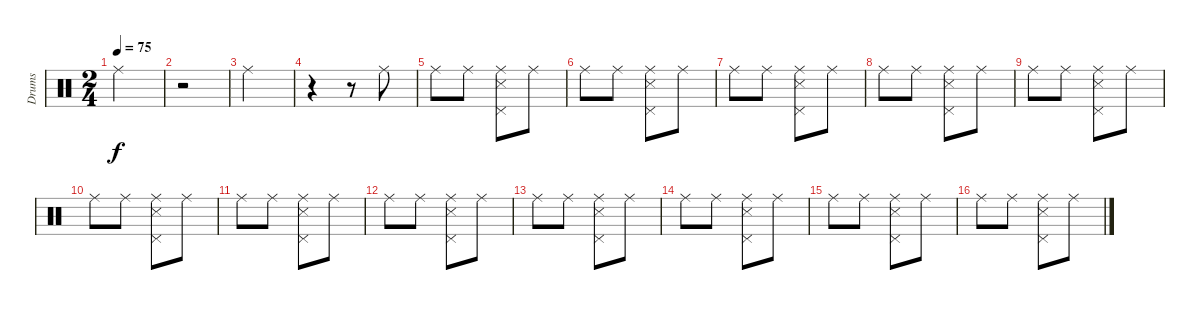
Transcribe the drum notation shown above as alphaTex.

\track ("Drums" "Drums") {instrument percussion}
\staff {score}
\articulation defaults
\ts (2 4)
\tempo 75
\clef neutral
\ks c "Ride (middle)".2{dy f}
|
r.2 |
"Ride (middle)".2 |
r.4 r.8 "Ride (middle)".8 |
"Ride (middle)".8 "Ride (middle)".8 ("Ride (middle)" "Pedal Hi-Hat (hit)" "Snare (side stick) 3").8 "Ride (middle)".8 |
"Ride (middle)".8 "Ride (middle)".8 ("Ride (middle)" "Pedal Hi-Hat (hit)" "Snare (side stick) 3").8 "Ride (middle)".8 |
"Ride (middle)".8 "Ride (middle)".8 ("Ride (middle)" "Pedal Hi-Hat (hit)" "Snare (side stick) 3").8 "Ride (middle)".8 |
"Ride (middle)".8 "Ride (middle)".8 ("Ride (middle)" "Pedal Hi-Hat (hit)" "Snare (side stick) 3").8 "Ride (middle)".8 |
"Ride (middle)".8 "Ride (middle)".8 ("Ride (middle)" "Pedal Hi-Hat (hit)" "Snare (side stick) 3").8 "Ride (middle)".8 |
"Ride (middle)".8 "Ride (middle)".8 ("Ride (middle)" "Pedal Hi-Hat (hit)" "Snare (side stick) 3").8 "Ride (middle)".8 |
"Ride (middle)".8 "Ride (middle)".8 ("Ride (middle)" "Pedal Hi-Hat (hit)" "Snare (side stick) 3").8 "Ride (middle)".8 |
"Ride (middle)".8 "Ride (middle)".8 ("Ride (middle)" "Pedal Hi-Hat (hit)" "Snare (side stick) 3").8 "Ride (middle)".8 |
"Ride (middle)".8 "Ride (middle)".8 ("Ride (middle)" "Pedal Hi-Hat (hit)" "Snare (side stick) 3").8 "Ride (middle)".8 |
"Ride (middle)".8 "Ride (middle)".8 ("Ride (middle)" "Pedal Hi-Hat (hit)" "Snare (side stick) 3").8 "Ride (middle)".8 |
"Ride (middle)".8 "Ride (middle)".8 ("Ride (middle)" "Pedal Hi-Hat (hit)" "Snare (side stick) 3").8 "Ride (middle)".8 |
"Ride (middle)".8 "Ride (middle)".8 ("Ride (middle)" "Pedal Hi-Hat (hit)" "Snare (side stick) 3").8 "Ride (middle)".8
